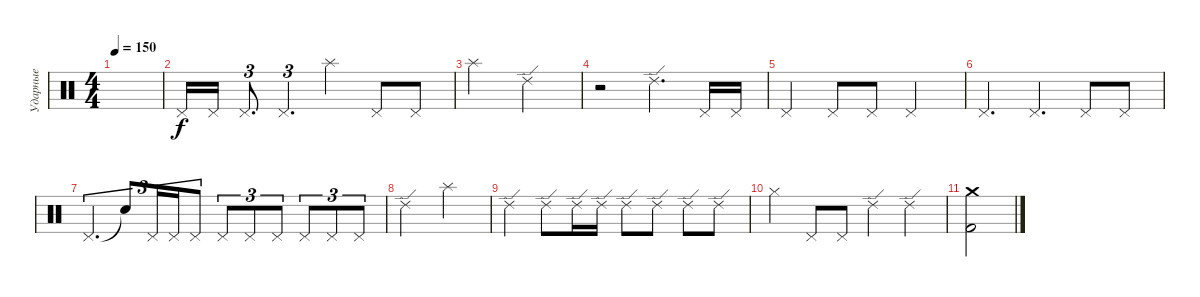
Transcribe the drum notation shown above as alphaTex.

\track ("Ударные" "Ударные") {instrument percussion}
\staff {score}
\articulation defaults
\ts (4 4)
\tempo 150
\clef neutral
\ks c
|
"Pedal Hi-Hat (hit)".16 "Pedal Hi-Hat (hit)".16 "Pedal Hi-Hat (hit)".8{d tu (3 2)} "Pedal Hi-Hat (hit)".4{d tu (3 2)} "Splash (hit)".4 "Pedal Hi-Hat (hit)".8 "Pedal Hi-Hat (hit)".8 |
"Splash (hit)".2 "Ride (edge) 2".2 |
r.2 "Ride (edge) 2".4{d} "Pedal Hi-Hat (hit)".16 "Pedal Hi-Hat (hit)".16 |
"Pedal Hi-Hat (hit)".4 "Pedal Hi-Hat (hit)".8 "Pedal Hi-Hat (hit)".8 "Pedal Hi-Hat (hit)".2 |
"Pedal Hi-Hat (hit)".4{d} "Pedal Hi-Hat (hit)".4{d} "Pedal Hi-Hat (hit)".8 "Pedal Hi-Hat (hit)".8 |
"Pedal Hi-Hat (hit)".4{d tu (3 2)} "Snare (hit)"{t}.8{tu (3 2)} "Pedal Hi-Hat (hit)".16{tu (3 2)} "Pedal Hi-Hat (hit)".16{tu (3 2)} "Pedal Hi-Hat (hit)".8{tu (3 2)} "Pedal Hi-Hat (hit)".8{tu (3 2)} "Pedal Hi-Hat (hit)".8{tu (3 2)} "Pedal Hi-Hat (hit)".8{tu (3 2)} "Pedal Hi-Hat (hit)".8{tu (3 2)} "Pedal Hi-Hat (hit)".8{tu (3 2)} "Pedal Hi-Hat (hit)".8{tu (3 2)} |
"Ride (edge) 2".2 "Splash (hit)".2 |
"Ride (edge) 2".4 "Ride (edge) 2".8 "Ride (edge) 2".16 "Ride (edge) 2".16 "Ride (edge) 2".8 "Ride (edge) 2".8 "Ride (edge) 2".8 "Ride (edge) 2".8 |
"Hi-Hat (closed)".4 "Pedal Hi-Hat (hit)".8 "Pedal Hi-Hat (hit)".8 "Ride (edge) 2".4 "Ride (edge) 2".4 |
("Kick (hit) 2" "Crash medium (hit)").2{volume 16}
